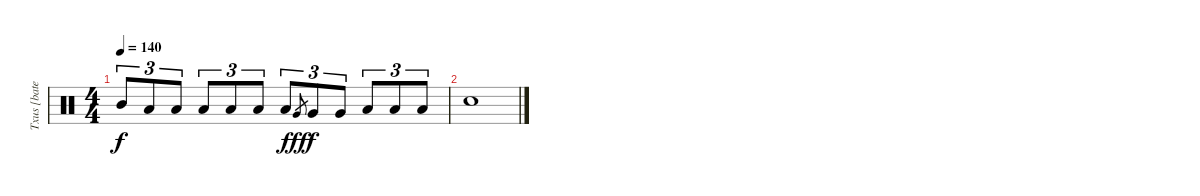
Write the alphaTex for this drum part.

\track ("Txus [bateria]" "Txus [bate") {instrument percussion}
\staff {score}
\articulation defaults
\ts (4 4)
\tempo 140
\clef neutral
\ks c "Mid Tom (hit)".8{tu (3 2) dy f} "Low Tom (hit)".8{tu (3 2)} "Low Tom (hit)".8{tu (3 2)} "Low Tom (hit)".8{tu (3 2)} "Low Tom (hit)".8{tu (3 2)} "Low Tom (hit)".8{tu (3 2)} "Low Tom (hit)".8{tu (3 2)} "Very Low Tom (hit)".8{gr dy fff} "Very Low Tom (hit)".8{tu (3 2) dy f} "Very Low Tom (hit)".8{tu (3 2)} "Low Floor Tom (hit)".8{tu (3 2)} "Low Floor Tom (hit)".8{tu (3 2)} "Low Floor Tom (hit)".8{tu (3 2)}
|
"Snare (hit) 2".1
